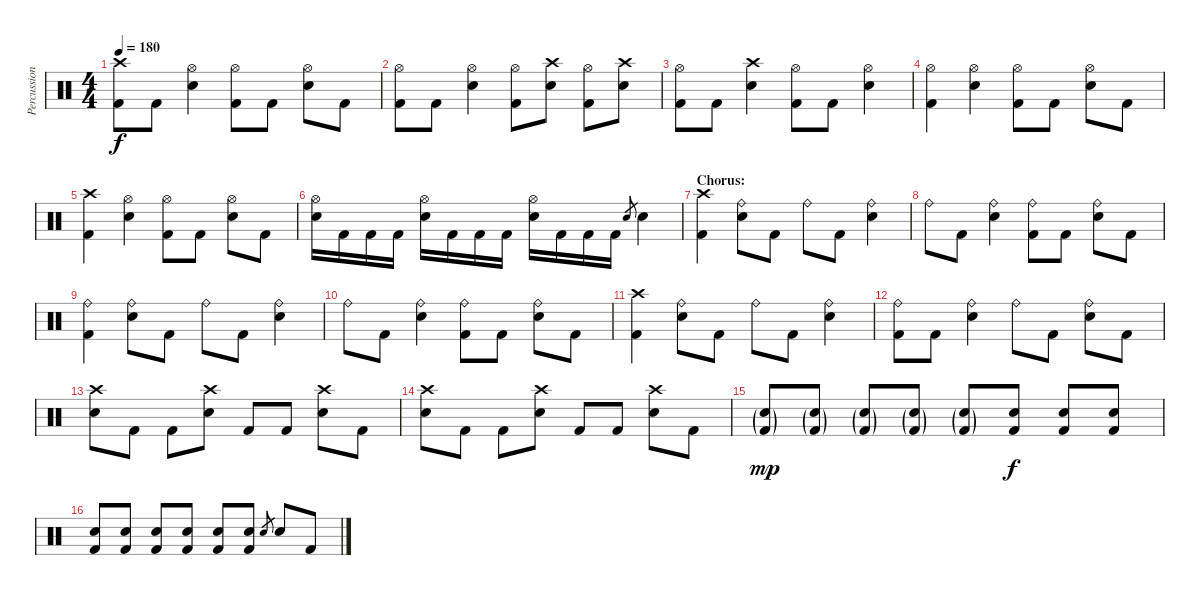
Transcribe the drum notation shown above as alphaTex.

\track ("Percussion" "Percussion") {instrument percussion}
\staff {score}
\articulation defaults
\ts (4 4)
\tempo 180
\clef neutral
\ks c
("Crash high (hit)" "Kick (hit) 2").8{dy f} "Kick (hit) 2".8 ("Hi-Hat (open)" "Snare (hit) 2").4 ("Hi-Hat (open)" "Kick (hit) 2").8 "Kick (hit) 2".8 ("Hi-Hat (open)" "Snare (hit) 2").8 "Kick (hit) 2".8 |
("Hi-Hat (open)" "Kick (hit) 2").8 "Kick (hit) 2".8 ("Hi-Hat (open)" "Snare (hit) 2").4 ("Hi-Hat (open)" "Kick (hit) 2").8 ("Crash high (hit)" "Snare (hit) 2").8 ("Hi-Hat (open)" "Kick (hit) 2").8 ("Crash high (hit)" "Snare (hit) 2").8 |
("Hi-Hat (open)" "Kick (hit) 2").8 "Kick (hit) 2".8 ("Crash high (hit)" "Snare (hit) 2").4 ("Hi-Hat (open)" "Kick (hit) 2").8 "Kick (hit) 2".8 ("Hi-Hat (open)" "Snare (hit) 2").4 |
("Hi-Hat (open)" "Kick (hit) 2").4 ("Hi-Hat (open)" "Snare (hit) 2").4 ("Hi-Hat (open)" "Kick (hit) 2").8 "Kick (hit) 2".8 ("Hi-Hat (open)" "Snare (hit) 2").8 "Kick (hit) 2".8 |
("Crash high (hit)" "Kick (hit) 2").4 ("Hi-Hat (open)" "Snare (hit) 2").4 ("Hi-Hat (open)" "Kick (hit) 2").8 "Kick (hit) 2".8 ("Hi-Hat (open)" "Snare (hit) 2").8 "Kick (hit) 2".8 |
("Hi-Hat (open)" "Snare (hit) 2").16 "Kick (hit) 2".16 "Kick (hit) 2".16 "Kick (hit) 2".16 ("Hi-Hat (open)" "Snare (hit) 2").16 "Kick (hit) 2".16 "Kick (hit) 2".16 "Kick (hit) 2".16 ("Hi-Hat (open)" "Snare (hit) 2").16 "Kick (hit) 2".16 "Kick (hit) 2".16 "Kick (hit) 2".16 "Snare (hit) 2".8{gr} "Snare (hit) 2".4 |
\section ("" "Chorus:")
("Crash high (hit)" "Kick (hit) 2").4 ("Ride (bell)" "Snare (hit) 2").8 "Kick (hit) 2".8 "Ride (bell)".8 "Kick (hit) 2".8 ("Ride (bell)" "Snare (hit) 2").4 |
"Ride (bell)".8 "Kick (hit) 2".8 ("Ride (bell)" "Snare (hit) 2").4 ("Ride (bell)" "Kick (hit) 2").8 "Kick (hit) 2".8 ("Ride (bell)" "Snare (hit) 2").8 "Kick (hit) 2".8 |
("Ride (bell)" "Kick (hit) 2").4 ("Ride (bell)" "Snare (hit) 2").8 "Kick (hit) 2".8 "Ride (bell)".8 "Kick (hit) 2".8 ("Ride (bell)" "Snare (hit) 2").4 |
"Ride (bell)".8 "Kick (hit) 2".8 ("Ride (bell)" "Snare (hit) 2").4 ("Ride (bell)" "Kick (hit) 2").8 "Kick (hit) 2".8 ("Ride (bell)" "Snare (hit) 2").8 "Kick (hit) 2".8 |
("Crash high (hit)" "Kick (hit) 2").4 ("Ride (bell)" "Snare (hit) 2").8 "Kick (hit) 2".8 "Ride (bell)".8 "Kick (hit) 2".8 ("Ride (bell)" "Snare (hit) 2").4 |
("Ride (bell)" "Kick (hit) 2").8 "Kick (hit) 2".8 ("Ride (bell)" "Snare (hit) 2").4 "Ride (bell)".8 "Kick (hit) 2".8 ("Ride (bell)" "Snare (hit) 2").8 "Kick (hit) 2".8 |
("Crash high (hit)" "Snare (hit) 2").8 "Kick (hit) 2".8 "Kick (hit) 2".8 ("Crash high (hit)" "Snare (hit) 2").8 "Kick (hit) 2".8 "Kick (hit) 2".8 ("Crash high (hit)" "Snare (hit) 2").8 "Kick (hit) 2".8 |
("Crash high (hit)" "Snare (hit) 2").8 "Kick (hit) 2".8 "Kick (hit) 2".8 ("Crash high (hit)" "Snare (hit) 2").8 "Kick (hit) 2".8 "Kick (hit) 2".8 ("Crash high (hit)" "Snare (hit) 2").8 "Kick (hit) 2".8 |
("Snare (hit) 2"{g} "Kick (hit) 2"{g}).8{dy mp} ("Snare (hit) 2"{g} "Kick (hit) 2"{g}).8 ("Snare (hit) 2"{g} "Kick (hit) 2"{g}).8 ("Snare (hit) 2"{g} "Kick (hit) 2"{g}).8 ("Snare (hit) 2"{g} "Kick (hit) 2"{g}).8 ("Snare (hit) 2" "Kick (hit) 2").8{dy f} ("Snare (hit) 2" "Kick (hit) 2").8 ("Snare (hit) 2" "Kick (hit) 2").8 |
("Snare (hit) 2" "Kick (hit) 2").8 ("Snare (hit) 2" "Kick (hit) 2").8 ("Snare (hit) 2" "Kick (hit) 2").8 ("Snare (hit) 2" "Kick (hit) 2").8 ("Snare (hit) 2" "Kick (hit) 2").8 ("Snare (hit) 2" "Kick (hit) 2").8 "Snare (hit) 2".8{gr} "Snare (hit) 2".8 "Kick (hit) 2".8
